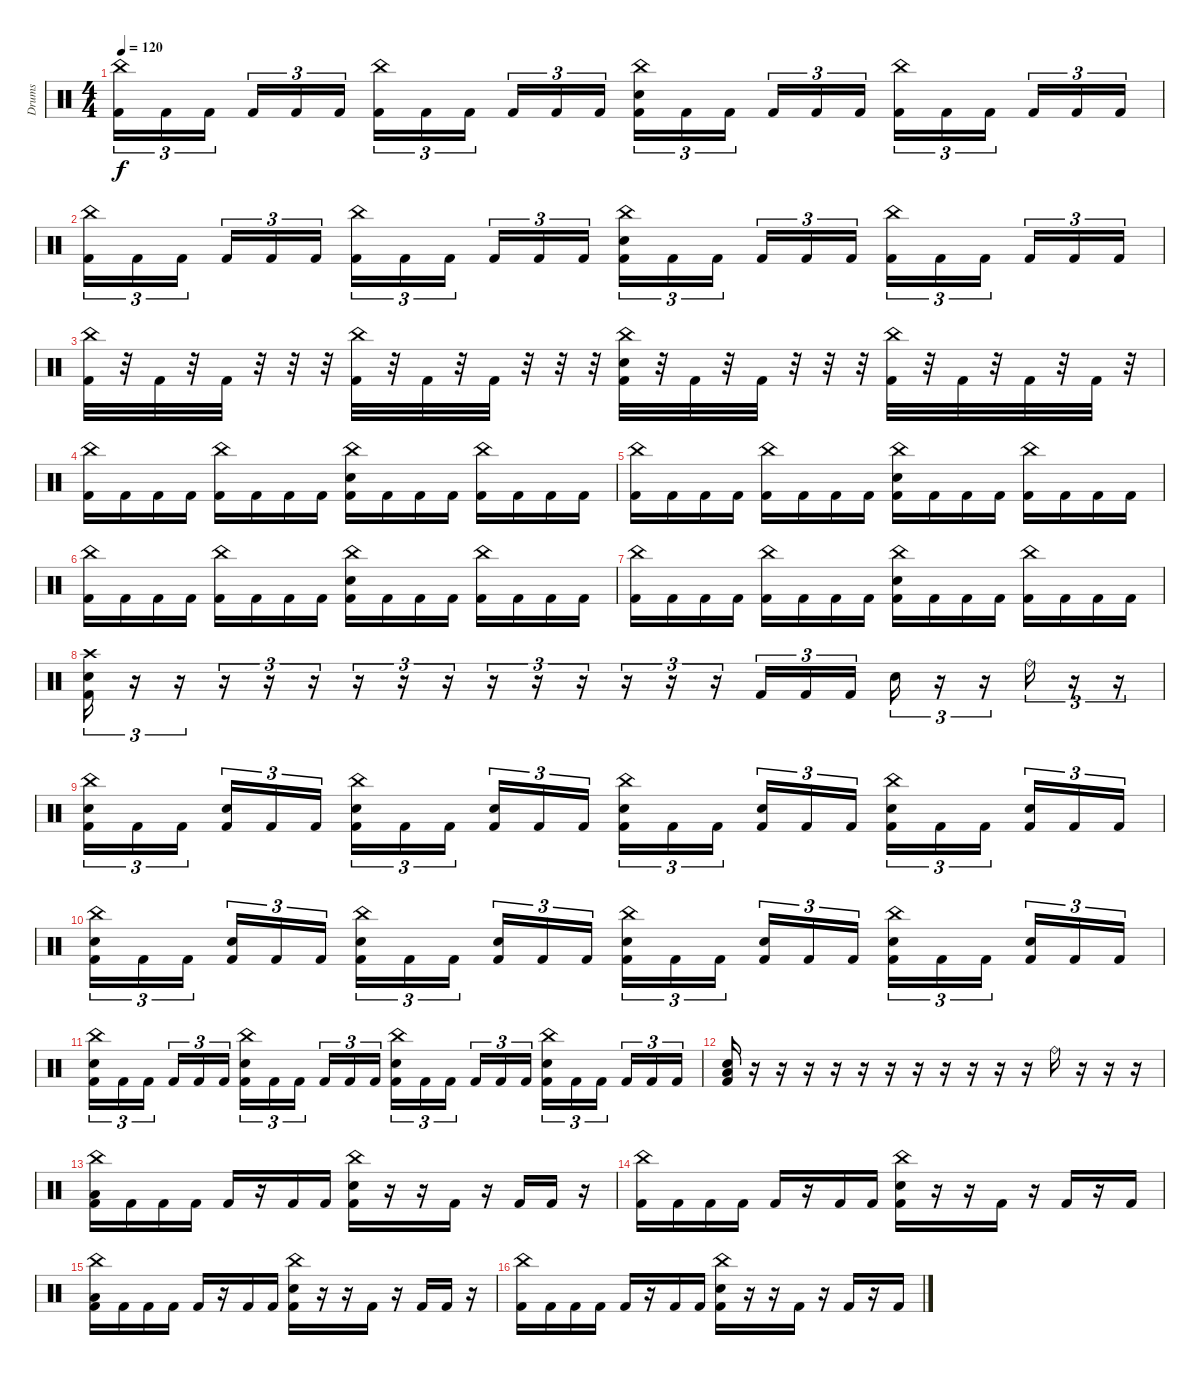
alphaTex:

\track ("Drums" "Drums") {instrument percussion}
\staff {score}
\articulation defaults
\ts (4 4)
\tempo 120
\clef neutral
\ks c
("China (hit)" "Kick (hit) 2").16{tu (3 2) dy f} "Kick (hit) 2".16{tu (3 2)} "Kick (hit) 2".16{tu (3 2) beam splitsecondary} "Kick (hit) 2".16{tu (3 2)} "Kick (hit) 2".16{tu (3 2)} "Kick (hit) 2".16{tu (3 2)} ("China (hit)" "Kick (hit) 2").16{tu (3 2)} "Kick (hit) 2".16{tu (3 2)} "Kick (hit) 2".16{tu (3 2) beam splitsecondary} "Kick (hit) 2".16{tu (3 2)} "Kick (hit) 2".16{tu (3 2)} "Kick (hit) 2".16{tu (3 2)} ("China (hit)" "Snare (hit) 2" "Kick (hit) 2").16{tu (3 2)} "Kick (hit) 2".16{tu (3 2)} "Kick (hit) 2".16{tu (3 2) beam splitsecondary} "Kick (hit) 2".16{tu (3 2)} "Kick (hit) 2".16{tu (3 2)} "Kick (hit) 2".16{tu (3 2)} ("China (hit)" "Kick (hit) 2").16{tu (3 2)} "Kick (hit) 2".16{tu (3 2)} "Kick (hit) 2".16{tu (3 2) beam splitsecondary} "Kick (hit) 2".16{tu (3 2)} "Kick (hit) 2".16{tu (3 2)} "Kick (hit) 2".16{tu (3 2)} |
("China (hit)" "Kick (hit) 2").16{tu (3 2)} "Kick (hit) 2".16{tu (3 2)} "Kick (hit) 2".16{tu (3 2) beam splitsecondary} "Kick (hit) 2".16{tu (3 2)} "Kick (hit) 2".16{tu (3 2)} "Kick (hit) 2".16{tu (3 2)} ("China (hit)" "Kick (hit) 2").16{tu (3 2)} "Kick (hit) 2".16{tu (3 2)} "Kick (hit) 2".16{tu (3 2) beam splitsecondary} "Kick (hit) 2".16{tu (3 2)} "Kick (hit) 2".16{tu (3 2)} "Kick (hit) 2".16{tu (3 2)} ("China (hit)" "Snare (hit) 2" "Kick (hit) 2").16{tu (3 2)} "Kick (hit) 2".16{tu (3 2)} "Kick (hit) 2".16{tu (3 2) beam splitsecondary} "Kick (hit) 2".16{tu (3 2)} "Kick (hit) 2".16{tu (3 2)} "Kick (hit) 2".16{tu (3 2)} ("China (hit)" "Kick (hit) 2").16{tu (3 2)} "Kick (hit) 2".16{tu (3 2)} "Kick (hit) 2".16{tu (3 2) beam splitsecondary} "Kick (hit) 2".16{tu (3 2)} "Kick (hit) 2".16{tu (3 2)} "Kick (hit) 2".16{tu (3 2)} |
("China (hit)" "Kick (hit) 2").32 r.32 "Kick (hit) 2".32 r.32 "Kick (hit) 2".32 r.32 r.32 r.32 ("China (hit)" "Kick (hit) 2").32 r.32 "Kick (hit) 2".32 r.32 "Kick (hit) 2".32 r.32 r.32 r.32 ("China (hit)" "Snare (hit) 2" "Kick (hit) 2").32 r.32 "Kick (hit) 2".32 r.32 "Kick (hit) 2".32 r.32 r.32 r.32 ("China (hit)" "Kick (hit) 2").32 r.32 "Kick (hit) 2".32 r.32 "Kick (hit) 2".32 r.32 "Kick (hit) 2".32 r.32 |
("China (hit)" "Kick (hit) 2").16 "Kick (hit) 2".16 "Kick (hit) 2".16 "Kick (hit) 2".16 ("China (hit)" "Kick (hit) 2").16 "Kick (hit) 2".16 "Kick (hit) 2".16 "Kick (hit) 2".16 ("China (hit)" "Snare (hit) 2" "Kick (hit) 2").16 "Kick (hit) 2".16 "Kick (hit) 2".16 "Kick (hit) 2".16 ("China (hit)" "Kick (hit) 2").16 "Kick (hit) 2".16 "Kick (hit) 2".16 "Kick (hit) 2".16 |
("China (hit)" "Kick (hit) 2").16 "Kick (hit) 2".16 "Kick (hit) 2".16 "Kick (hit) 2".16 ("China (hit)" "Kick (hit) 2").16 "Kick (hit) 2".16 "Kick (hit) 2".16 "Kick (hit) 2".16 ("China (hit)" "Snare (hit) 2" "Kick (hit) 2").16 "Kick (hit) 2".16 "Kick (hit) 2".16 "Kick (hit) 2".16 ("China (hit)" "Kick (hit) 2").16 "Kick (hit) 2".16 "Kick (hit) 2".16 "Kick (hit) 2".16 |
("China (hit)" "Kick (hit) 2").16 "Kick (hit) 2".16 "Kick (hit) 2".16 "Kick (hit) 2".16 ("China (hit)" "Kick (hit) 2").16 "Kick (hit) 2".16 "Kick (hit) 2".16 "Kick (hit) 2".16 ("China (hit)" "Snare (hit) 2" "Kick (hit) 2").16 "Kick (hit) 2".16 "Kick (hit) 2".16 "Kick (hit) 2".16 ("China (hit)" "Kick (hit) 2").16 "Kick (hit) 2".16 "Kick (hit) 2".16 "Kick (hit) 2".16 |
("China (hit)" "Kick (hit) 2").16 "Kick (hit) 2".16 "Kick (hit) 2".16 "Kick (hit) 2".16 ("China (hit)" "Kick (hit) 2").16 "Kick (hit) 2".16 "Kick (hit) 2".16 "Kick (hit) 2".16 ("China (hit)" "Snare (hit) 2" "Kick (hit) 2").16 "Kick (hit) 2".16 "Kick (hit) 2".16 "Kick (hit) 2".16 ("China (hit)" "Kick (hit) 2").16 "Kick (hit) 2".16 "Kick (hit) 2".16 "Kick (hit) 2".16 |
("Crash high (hit)" "Snare (hit) 2" "Kick (hit) 2").16{tu (3 2)} r.16{tu (3 2)} r.16{tu (3 2)} r.16{tu (3 2)} r.16{tu (3 2)} r.16{tu (3 2)} r.16{tu (3 2)} r.16{tu (3 2)} r.16{tu (3 2)} r.16{tu (3 2)} r.16{tu (3 2)} r.16{tu (3 2)} r.16{tu (3 2)} r.16{tu (3 2)} r.16{tu (3 2)} "Kick (hit) 2".16{tu (3 2)} "Kick (hit) 2".16{tu (3 2)} "Kick (hit) 2".16{tu (3 2)} "Snare (hit) 2".16{tu (3 2)} r.16{tu (3 2)} r.16{tu (3 2)} "Ride (bell)".16{tu (3 2)} r.16{tu (3 2)} r.16{tu (3 2)} |
("China (hit)" "Snare (hit) 2" "Kick (hit) 2").16{tu (3 2)} "Kick (hit) 2".16{tu (3 2)} "Kick (hit) 2".16{tu (3 2) beam splitsecondary} ("Snare (hit) 2" "Kick (hit) 2").16{tu (3 2)} "Kick (hit) 2".16{tu (3 2)} "Kick (hit) 2".16{tu (3 2)} ("China (hit)" "Snare (hit) 2" "Kick (hit) 2").16{tu (3 2)} "Kick (hit) 2".16{tu (3 2)} "Kick (hit) 2".16{tu (3 2) beam splitsecondary} ("Snare (hit) 2" "Kick (hit) 2").16{tu (3 2)} "Kick (hit) 2".16{tu (3 2)} "Kick (hit) 2".16{tu (3 2)} ("China (hit)" "Snare (hit) 2" "Kick (hit) 2").16{tu (3 2)} "Kick (hit) 2".16{tu (3 2)} "Kick (hit) 2".16{tu (3 2) beam splitsecondary} ("Snare (hit) 2" "Kick (hit) 2").16{tu (3 2)} "Kick (hit) 2".16{tu (3 2)} "Kick (hit) 2".16{tu (3 2)} ("China (hit)" "Snare (hit) 2" "Kick (hit) 2").16{tu (3 2)} "Kick (hit) 2".16{tu (3 2)} "Kick (hit) 2".16{tu (3 2) beam splitsecondary} ("Snare (hit) 2" "Kick (hit) 2").16{tu (3 2)} "Kick (hit) 2".16{tu (3 2)} "Kick (hit) 2".16{tu (3 2)} |
("China (hit)" "Snare (hit) 2" "Kick (hit) 2").16{tu (3 2)} "Kick (hit) 2".16{tu (3 2)} "Kick (hit) 2".16{tu (3 2) beam splitsecondary} ("Snare (hit) 2" "Kick (hit) 2").16{tu (3 2)} "Kick (hit) 2".16{tu (3 2)} "Kick (hit) 2".16{tu (3 2)} ("China (hit)" "Snare (hit) 2" "Kick (hit) 2").16{tu (3 2)} "Kick (hit) 2".16{tu (3 2)} "Kick (hit) 2".16{tu (3 2) beam splitsecondary} ("Snare (hit) 2" "Kick (hit) 2").16{tu (3 2)} "Kick (hit) 2".16{tu (3 2)} "Kick (hit) 2".16{tu (3 2)} ("China (hit)" "Snare (hit) 2" "Kick (hit) 2").16{tu (3 2)} "Kick (hit) 2".16{tu (3 2)} "Kick (hit) 2".16{tu (3 2) beam splitsecondary} ("Snare (hit) 2" "Kick (hit) 2").16{tu (3 2)} "Kick (hit) 2".16{tu (3 2)} "Kick (hit) 2".16{tu (3 2)} ("China (hit)" "Snare (hit) 2" "Kick (hit) 2").16{tu (3 2)} "Kick (hit) 2".16{tu (3 2)} "Kick (hit) 2".16{tu (3 2) beam splitsecondary} ("Snare (hit) 2" "Kick (hit) 2").16{tu (3 2)} "Kick (hit) 2".16{tu (3 2)} "Kick (hit) 2".16{tu (3 2)} |
("China (hit)" "Snare (hit) 2" "Kick (hit) 2").16{tu (3 2)} "Kick (hit) 2".16{tu (3 2)} "Kick (hit) 2".16{tu (3 2) beam splitsecondary} "Kick (hit) 2".16{tu (3 2)} "Kick (hit) 2".16{tu (3 2)} "Kick (hit) 2".16{tu (3 2)} ("China (hit)" "Snare (hit) 2" "Kick (hit) 2").16{tu (3 2)} "Kick (hit) 2".16{tu (3 2)} "Kick (hit) 2".16{tu (3 2) beam splitsecondary} "Kick (hit) 2".16{tu (3 2)} "Kick (hit) 2".16{tu (3 2)} "Kick (hit) 2".16{tu (3 2)} ("China (hit)" "Snare (hit) 2" "Kick (hit) 2").16{tu (3 2)} "Kick (hit) 2".16{tu (3 2)} "Kick (hit) 2".16{tu (3 2) beam splitsecondary} "Kick (hit) 2".16{tu (3 2)} "Kick (hit) 2".16{tu (3 2)} "Kick (hit) 2".16{tu (3 2)} ("China (hit)" "Snare (hit) 2" "Kick (hit) 2").16{tu (3 2)} "Kick (hit) 2".16{tu (3 2)} "Kick (hit) 2".16{tu (3 2) beam splitsecondary} "Kick (hit) 2".16{tu (3 2)} "Kick (hit) 2".16{tu (3 2)} "Kick (hit) 2".16{tu (3 2)} |
("Low Floor Tom (hit)" "Snare (hit) 2" "Kick (hit) 2").16 r.16 r.16 r.16 r.16 r.16 r.16 r.16 r.16 r.16 r.16 r.16 "Ride (bell)".16 r.16 r.16 r.16 |
("China (hit)" "Low Floor Tom (hit)" "Kick (hit) 2").16 "Kick (hit) 2".16 "Kick (hit) 2".16 "Kick (hit) 2".16 "Kick (hit) 2".16 r.16 "Kick (hit) 2".16 "Kick (hit) 2".16 ("China (hit)" "Snare (hit) 2" "Kick (hit) 2").16 r.16 r.16 "Kick (hit) 2".16 r.16 "Kick (hit) 2".16 "Kick (hit) 2".16 r.16 |
("China (hit)" "Kick (hit) 2").16 "Kick (hit) 2".16 "Kick (hit) 2".16 "Kick (hit) 2".16 "Kick (hit) 2".16 r.16 "Kick (hit) 2".16 "Kick (hit) 2".16 ("China (hit)" "Snare (hit) 2" "Kick (hit) 2").16 r.16 r.16 "Kick (hit) 2".16 r.16 "Kick (hit) 2".16 r.16 "Kick (hit) 2".16 |
("China (hit)" "Low Floor Tom (hit)" "Kick (hit) 2").16 "Kick (hit) 2".16 "Kick (hit) 2".16 "Kick (hit) 2".16 "Kick (hit) 2".16 r.16 "Kick (hit) 2".16 "Kick (hit) 2".16 ("China (hit)" "Snare (hit) 2" "Kick (hit) 2").16 r.16 r.16 "Kick (hit) 2".16 r.16 "Kick (hit) 2".16 "Kick (hit) 2".16 r.16 |
("China (hit)" "Kick (hit) 2").16 "Kick (hit) 2".16 "Kick (hit) 2".16 "Kick (hit) 2".16 "Kick (hit) 2".16 r.16 "Kick (hit) 2".16 "Kick (hit) 2".16 ("China (hit)" "Snare (hit) 2" "Kick (hit) 2").16 r.16 r.16 "Kick (hit) 2".16 r.16 "Kick (hit) 2".16 r.16 "Kick (hit) 2".16
